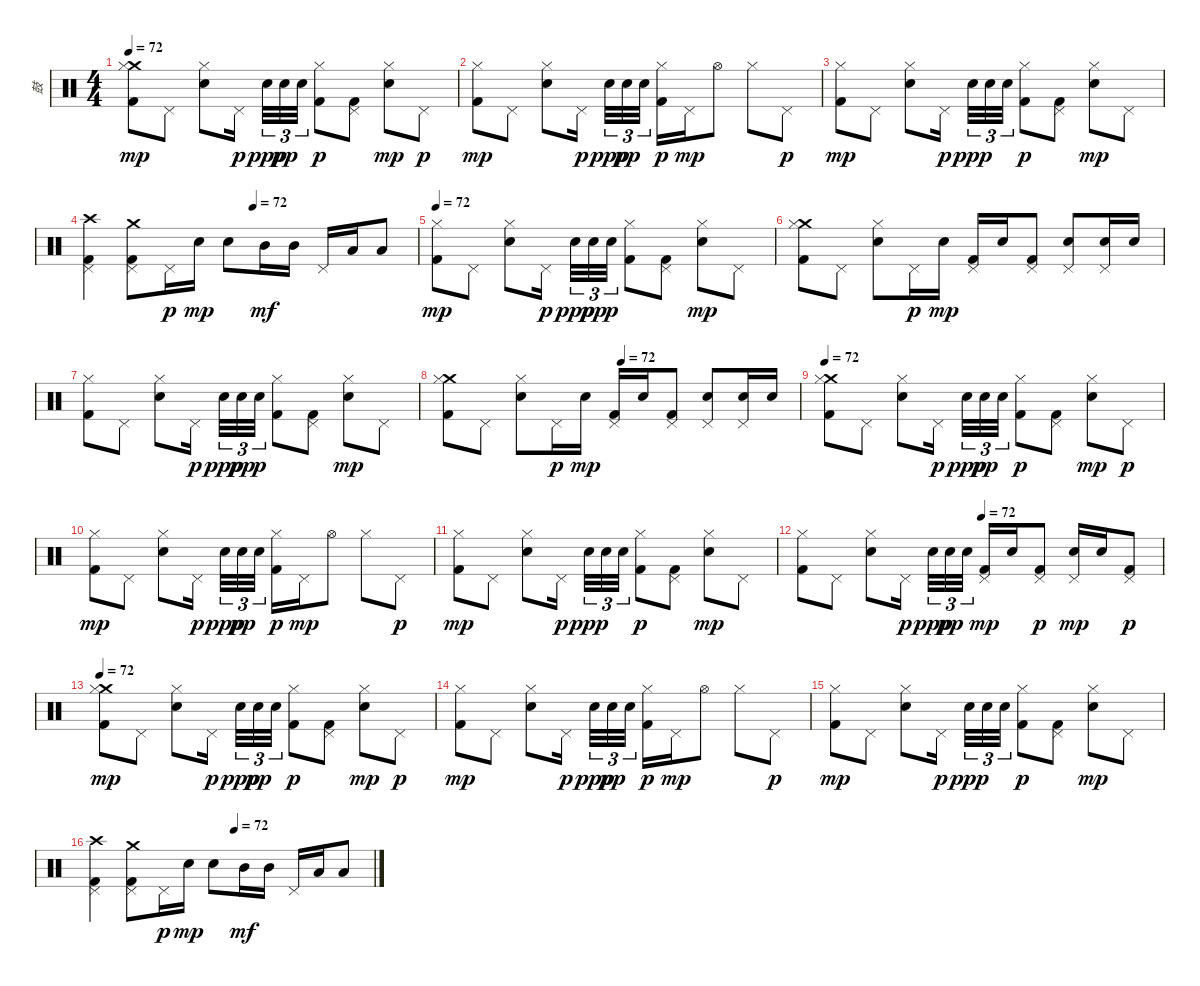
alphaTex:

\track ("鼓" "鼓") {instrument percussion}
\staff {score}
\articulation defaults
\ts (4 4)
\tempo 72
\clef neutral
\ks c
("Crash medium (hit)" "Hi-Hat (closed)" "Kick (hit) 2").8{dy mp} "Pedal Hi-Hat (hit)".8 ("Hi-Hat (closed)" "Electric Snare (hit)").8 "Pedal Hi-Hat (hit)".16{dy p beam splitsecondary} "Electric Snare (hit)".32{tu (3 2) dy ppp} "Electric Snare (hit)".32{tu (3 2) dy pp} "Electric Snare (hit)".32{tu (3 2)} ("Hi-Hat (closed)" "Kick (hit) 2").8{dy p} ("Pedal Hi-Hat (hit)" "Kick (hit) 2").8 ("Hi-Hat (closed)" "Electric Snare (hit)").8{dy mp} "Pedal Hi-Hat (hit)".8{dy p} |
("Hi-Hat (closed)" "Kick (hit) 2").8{dy mp} "Pedal Hi-Hat (hit)".8 ("Hi-Hat (closed)" "Electric Snare (hit)").8 "Pedal Hi-Hat (hit)".16{dy p beam splitsecondary} "Electric Snare (hit)".32{tu (3 2) dy ppp} "Electric Snare (hit)".32{tu (3 2) dy pp} "Electric Snare (hit)".32{tu (3 2)} ("Hi-Hat (closed)" "Kick (hit) 2").16{dy p} "Pedal Hi-Hat (hit)".16{dy mp} "Hi-Hat (open)".8 "Hi-Hat (closed)".8 "Pedal Hi-Hat (hit)".8{dy p} |
("Hi-Hat (closed)" "Kick (hit) 2").8{dy mp} "Pedal Hi-Hat (hit)".8 ("Hi-Hat (closed)" "Electric Snare (hit)").8 "Pedal Hi-Hat (hit)".16{dy p beam splitsecondary} "Electric Snare (hit)".32{tu (3 2) dy ppp} "Electric Snare (hit)".32{tu (3 2)} "Electric Snare (hit)".32{tu (3 2)} ("Hi-Hat (closed)" "Kick (hit) 2").8{dy p} ("Pedal Hi-Hat (hit)" "Kick (hit) 2").8 ("Hi-Hat (closed)" "Electric Snare (hit)").8{dy mp} "Pedal Hi-Hat (hit)".8 |
\tempo (72 0.5)
("Crash high (hit)" "Pedal Hi-Hat (hit)" "Kick (hit) 2").4 ("Crash medium (hit)" "Pedal Hi-Hat (hit)" "Kick (hit) 2").8 "Pedal Hi-Hat (hit)".16{dy p} "Electric Snare (hit)".16{dy mp} "Electric Snare (hit)".8 "Mid Tom (hit)".16{dy mf} "Mid Tom (hit)".16 "Pedal Hi-Hat (hit)".16 "Low Tom (hit)".16 "Low Tom (hit)".8 |
\tempo 72
("Hi-Hat (closed)" "Kick (hit) 2").8{dy mp} "Pedal Hi-Hat (hit)".8 ("Hi-Hat (closed)" "Electric Snare (hit)").8 "Pedal Hi-Hat (hit)".16{dy p beam splitsecondary} "Electric Snare (hit)".32{tu (3 2) dy ppp} "Electric Snare (hit)".32{tu (3 2) dy pp} "Electric Snare (hit)".32{tu (3 2) dy p} ("Hi-Hat (closed)" "Kick (hit) 2").8 ("Pedal Hi-Hat (hit)" "Kick (hit) 2").8 ("Hi-Hat (closed)" "Electric Snare (hit)").8{dy mp} "Pedal Hi-Hat (hit)".8 |
("Crash medium (hit)" "Hi-Hat (closed)" "Kick (hit) 2").8 "Pedal Hi-Hat (hit)".8 ("Hi-Hat (closed)" "Electric Snare (hit)").8 "Pedal Hi-Hat (hit)".16{dy p} "Electric Snare (hit)".16{dy mp} ("Pedal Hi-Hat (hit)" "Kick (hit) 2").16 "Electric Snare (hit)".16 ("Pedal Hi-Hat (hit)" "Kick (hit) 2").8 ("Pedal Hi-Hat (hit)" "Electric Snare (hit)").8 ("Pedal Hi-Hat (hit)" "Electric Snare (hit)").16 "Electric Snare (hit)".16 |
("Hi-Hat (closed)" "Kick (hit) 2").8 "Pedal Hi-Hat (hit)".8 ("Hi-Hat (closed)" "Electric Snare (hit)").8 "Pedal Hi-Hat (hit)".16{dy p beam splitsecondary} "Electric Snare (hit)".32{tu (3 2) dy ppp} "Electric Snare (hit)".32{tu (3 2) dy pp} "Electric Snare (hit)".32{tu (3 2) dy p} ("Hi-Hat (closed)" "Kick (hit) 2").8 ("Pedal Hi-Hat (hit)" "Kick (hit) 2").8 ("Hi-Hat (closed)" "Electric Snare (hit)").8{dy mp} "Pedal Hi-Hat (hit)".8 |
\tempo (72 0.5)
("Crash medium (hit)" "Hi-Hat (closed)" "Kick (hit) 2").8 "Pedal Hi-Hat (hit)".8 ("Hi-Hat (closed)" "Electric Snare (hit)").8 "Pedal Hi-Hat (hit)".16{dy p} "Electric Snare (hit)".16{dy mp} ("Pedal Hi-Hat (hit)" "Kick (hit) 2").16 "Electric Snare (hit)".16 ("Pedal Hi-Hat (hit)" "Kick (hit) 2").8 ("Pedal Hi-Hat (hit)" "Electric Snare (hit)").8 ("Pedal Hi-Hat (hit)" "Electric Snare (hit)").16 "Electric Snare (hit)".16 |
\tempo 72
("Crash medium (hit)" "Hi-Hat (closed)" "Kick (hit) 2").8 "Pedal Hi-Hat (hit)".8 ("Hi-Hat (closed)" "Electric Snare (hit)").8 "Pedal Hi-Hat (hit)".16{dy p beam splitsecondary} "Electric Snare (hit)".32{tu (3 2) dy ppp} "Electric Snare (hit)".32{tu (3 2) dy pp} "Electric Snare (hit)".32{tu (3 2)} ("Hi-Hat (closed)" "Kick (hit) 2").8{dy p} ("Pedal Hi-Hat (hit)" "Kick (hit) 2").8 ("Hi-Hat (closed)" "Electric Snare (hit)").8{dy mp} "Pedal Hi-Hat (hit)".8{dy p} |
("Hi-Hat (closed)" "Kick (hit) 2").8{dy mp} "Pedal Hi-Hat (hit)".8 ("Hi-Hat (closed)" "Electric Snare (hit)").8 "Pedal Hi-Hat (hit)".16{dy p beam splitsecondary} "Electric Snare (hit)".32{tu (3 2) dy ppp} "Electric Snare (hit)".32{tu (3 2) dy pp} "Electric Snare (hit)".32{tu (3 2)} ("Hi-Hat (closed)" "Kick (hit) 2").16{dy p} "Pedal Hi-Hat (hit)".16{dy mp} "Hi-Hat (open)".8 "Hi-Hat (closed)".8 "Pedal Hi-Hat (hit)".8{dy p} |
("Hi-Hat (closed)" "Kick (hit) 2").8{dy mp} "Pedal Hi-Hat (hit)".8 ("Hi-Hat (closed)" "Electric Snare (hit)").8 "Pedal Hi-Hat (hit)".16{dy p beam splitsecondary} "Electric Snare (hit)".32{tu (3 2) dy ppp} "Electric Snare (hit)".32{tu (3 2)} "Electric Snare (hit)".32{tu (3 2)} ("Hi-Hat (closed)" "Kick (hit) 2").8{dy p} ("Pedal Hi-Hat (hit)" "Kick (hit) 2").8 ("Hi-Hat (closed)" "Electric Snare (hit)").8{dy mp} "Pedal Hi-Hat (hit)".8 |
\tempo (72 0.5)
("Hi-Hat (closed)" "Kick (hit) 2").8 "Pedal Hi-Hat (hit)".8 ("Hi-Hat (closed)" "Electric Snare (hit)").8 "Pedal Hi-Hat (hit)".16{dy p beam splitsecondary} "Electric Snare (hit)".32{tu (3 2) dy ppp} "Electric Snare (hit)".32{tu (3 2) dy pp} "Electric Snare (hit)".32{tu (3 2)} ("Pedal Hi-Hat (hit)" "Kick (hit) 2").16{dy mp} "Electric Snare (hit)".16 ("Pedal Hi-Hat (hit)" "Kick (hit) 2").8{dy p} ("Pedal Hi-Hat (hit)" "Electric Snare (hit)").16{dy mp} "Electric Snare (hit)".16 ("Pedal Hi-Hat (hit)" "Kick (hit) 2").8{dy p} |
\tempo 72
("Crash medium (hit)" "Hi-Hat (closed)" "Kick (hit) 2").8{dy mp} "Pedal Hi-Hat (hit)".8 ("Hi-Hat (closed)" "Electric Snare (hit)").8 "Pedal Hi-Hat (hit)".16{dy p beam splitsecondary} "Electric Snare (hit)".32{tu (3 2) dy ppp} "Electric Snare (hit)".32{tu (3 2) dy pp} "Electric Snare (hit)".32{tu (3 2)} ("Hi-Hat (closed)" "Kick (hit) 2").8{dy p} ("Pedal Hi-Hat (hit)" "Kick (hit) 2").8 ("Hi-Hat (closed)" "Electric Snare (hit)").8{dy mp} "Pedal Hi-Hat (hit)".8{dy p} |
("Hi-Hat (closed)" "Kick (hit) 2").8{dy mp} "Pedal Hi-Hat (hit)".8 ("Hi-Hat (closed)" "Electric Snare (hit)").8 "Pedal Hi-Hat (hit)".16{dy p beam splitsecondary} "Electric Snare (hit)".32{tu (3 2) dy ppp} "Electric Snare (hit)".32{tu (3 2) dy pp} "Electric Snare (hit)".32{tu (3 2)} ("Hi-Hat (closed)" "Kick (hit) 2").16{dy p} "Pedal Hi-Hat (hit)".16{dy mp} "Hi-Hat (open)".8 "Hi-Hat (closed)".8 "Pedal Hi-Hat (hit)".8{dy p} |
("Hi-Hat (closed)" "Kick (hit) 2").8{dy mp} "Pedal Hi-Hat (hit)".8 ("Hi-Hat (closed)" "Electric Snare (hit)").8 "Pedal Hi-Hat (hit)".16{dy p beam splitsecondary} "Electric Snare (hit)".32{tu (3 2) dy ppp} "Electric Snare (hit)".32{tu (3 2)} "Electric Snare (hit)".32{tu (3 2)} ("Hi-Hat (closed)" "Kick (hit) 2").8{dy p} ("Pedal Hi-Hat (hit)" "Kick (hit) 2").8 ("Hi-Hat (closed)" "Electric Snare (hit)").8{dy mp} "Pedal Hi-Hat (hit)".8 |
\tempo (72 0.5)
("Crash high (hit)" "Pedal Hi-Hat (hit)" "Kick (hit) 2").4 ("Crash medium (hit)" "Pedal Hi-Hat (hit)" "Kick (hit) 2").8 "Pedal Hi-Hat (hit)".16{dy p} "Electric Snare (hit)".16{dy mp} "Electric Snare (hit)".8 "Mid Tom (hit)".16{dy mf} "Mid Tom (hit)".16 "Pedal Hi-Hat (hit)".16 "Low Tom (hit)".16 "Low Tom (hit)".8
